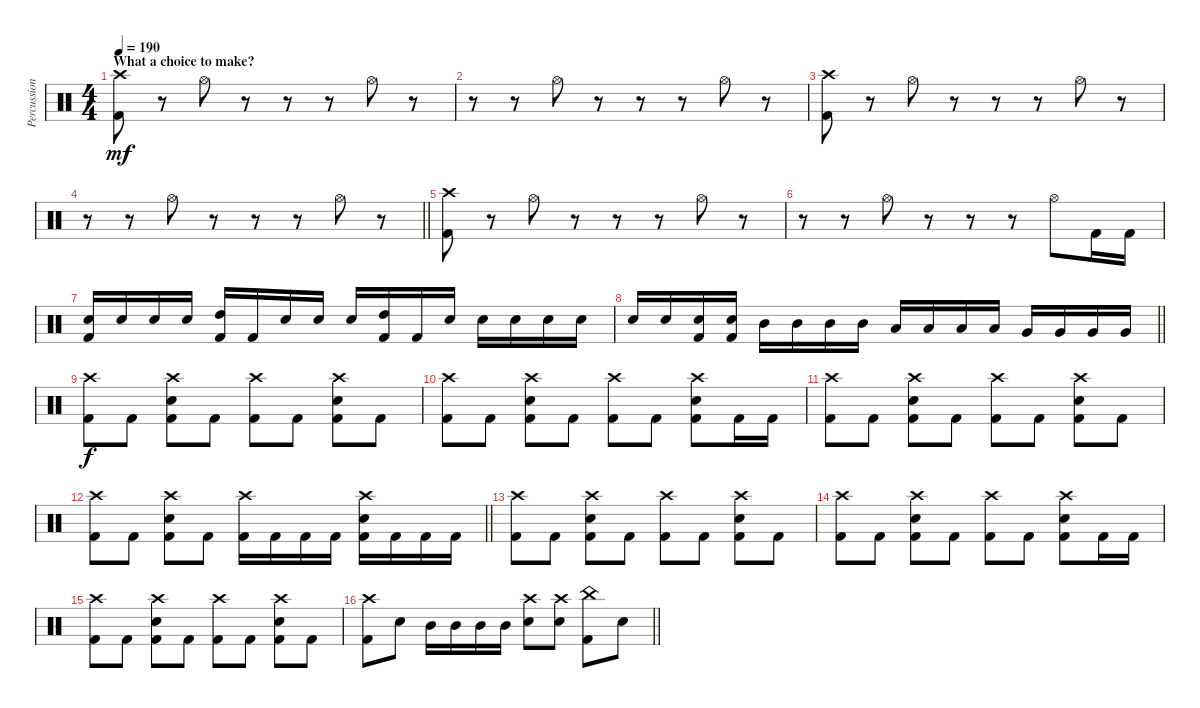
\track ("Percussion" "Percussion") {instrument percussion}
\staff {score}
\articulation defaults
\ts (4 4)
\section ("" "What a choice to make?")
\tempo 190
\clef neutral
\ks c
("Crash high (hit)" "Kick (hit) 2").8{dy mf} r.8 "Hi-Hat (open)".8 r.8 r.8 r.8 "Hi-Hat (open)".8 r.8 |
r.8 r.8 "Hi-Hat (open)".8 r.8 r.8 r.8 "Hi-Hat (open)".8 r.8 |
("Crash high (hit)" "Kick (hit) 2").8 r.8 "Hi-Hat (open)".8 r.8 r.8 r.8 "Hi-Hat (open)".8 r.8 |
\barLineRight lightlight
r.8 r.8 "Hi-Hat (open)".8 r.8 r.8 r.8 "Hi-Hat (open)".8 r.8 |
("Crash high (hit)" "Kick (hit) 2").8 r.8 "Hi-Hat (open)".8 r.8 r.8 r.8 "Hi-Hat (open)".8 r.8 |
r.8 r.8 "Hi-Hat (open)".8 r.8 r.8 r.8 "Hi-Hat (open)".8 "Kick (hit) 2".16 "Kick (hit) 2".16 |
("Snare (hit) 2" "Kick (hit) 2").16 "Snare (hit) 2".16 "Snare (hit) 2".16 "Snare (hit) 2".16 ("High Tom (hit)" "Kick (hit) 2").16 "Kick (hit) 2".16 "Snare (hit) 2".16 "Snare (hit) 2".16 "Snare (hit) 2".16 ("High Tom (hit)" "Kick (hit) 2").16 "Kick (hit) 2".16 "Snare (hit) 2".16 "Snare (hit) 2".16 "Snare (hit) 2".16 "Snare (hit) 2".16 "Snare (hit) 2".16 |
\barLineRight lightlight "Snare (hit) 2".16 "Snare (hit) 2".16
("Snare (hit) 2" "Kick (hit) 2").16 ("Snare (hit) 2" "Kick (hit) 2").16 "Mid Tom (hit)".16 "Mid Tom (hit)".16 "Mid Tom (hit)".16 "Mid Tom (hit)".16 "Low Tom (hit)".16 "Low Tom (hit)".16 "Low Tom (hit)".16 "Low Tom (hit)".16 "Very Low Tom (hit)".16 "Very Low Tom (hit)".16 "Very Low Tom (hit)".16 "Very Low Tom (hit)".16 |
("Crash high (hit)" "Kick (hit) 2").8{dy f} "Kick (hit) 2".8 ("Crash high (hit)" "Snare (hit) 2" "Kick (hit) 2").8 "Kick (hit) 2".8 ("Crash high (hit)" "Kick (hit) 2").8 "Kick (hit) 2".8 ("Crash high (hit)" "Snare (hit) 2" "Kick (hit) 2").8 "Kick (hit) 2".8 |
("Crash high (hit)" "Kick (hit) 2").8 "Kick (hit) 2".8 ("Crash high (hit)" "Snare (hit) 2" "Kick (hit) 2").8 "Kick (hit) 2".8 ("Crash high (hit)" "Kick (hit) 2").8 "Kick (hit) 2".8 ("Crash high (hit)" "Snare (hit) 2" "Kick (hit) 2").8 "Kick (hit) 2".16 "Kick (hit) 2".16 |
("Crash high (hit)" "Kick (hit) 2").8 "Kick (hit) 2".8 ("Crash high (hit)" "Snare (hit) 2" "Kick (hit) 2").8 "Kick (hit) 2".8 ("Crash high (hit)" "Kick (hit) 2").8 "Kick (hit) 2".8 ("Crash high (hit)" "Snare (hit) 2" "Kick (hit) 2").8 "Kick (hit) 2".8 |
\barLineRight lightlight
("Crash high (hit)" "Kick (hit) 2").8 "Kick (hit) 2".8 ("Crash high (hit)" "Snare (hit) 2" "Kick (hit) 2").8 "Kick (hit) 2".8 ("Crash high (hit)" "Kick (hit) 2").16 "Kick (hit) 2".16 "Kick (hit) 2".16 "Kick (hit) 2".16 ("Crash high (hit)" "Snare (hit) 2" "Kick (hit) 2").16 "Kick (hit) 2".16 "Kick (hit) 2".16 "Kick (hit) 2".16 |
("Crash high (hit)" "Kick (hit) 2").8 "Kick (hit) 2".8 ("Crash high (hit)" "Snare (hit) 2" "Kick (hit) 2").8 "Kick (hit) 2".8 ("Crash high (hit)" "Kick (hit) 2").8 "Kick (hit) 2".8 ("Crash high (hit)" "Snare (hit) 2" "Kick (hit) 2").8 "Kick (hit) 2".8 |
("Crash high (hit)" "Kick (hit) 2").8 "Kick (hit) 2".8 ("Crash high (hit)" "Snare (hit) 2" "Kick (hit) 2").8 "Kick (hit) 2".8 ("Crash high (hit)" "Kick (hit) 2").8 "Kick (hit) 2".8 ("Crash high (hit)" "Snare (hit) 2" "Kick (hit) 2").8 "Kick (hit) 2".16 "Kick (hit) 2".16 |
("Crash high (hit)" "Kick (hit) 2").8 "Kick (hit) 2".8 ("Crash high (hit)" "Snare (hit) 2" "Kick (hit) 2").8 "Kick (hit) 2".8 ("Crash high (hit)" "Kick (hit) 2").8 "Kick (hit) 2".8 ("Crash high (hit)" "Snare (hit) 2" "Kick (hit) 2").8 "Kick (hit) 2".8 |
\barLineRight lightlight
("Crash high (hit)" "Kick (hit) 2").8 "Snare (hit) 2".8 "Mid Tom (hit)".16 "Mid Tom (hit)".16 "Mid Tom (hit)".16 "Mid Tom (hit)".16 ("Crash high (hit)" "Snare (hit) 2").8 ("Crash high (hit)" "Snare (hit) 2").8 ("China (hit)" "Kick (hit) 2").8 "Snare (hit) 2".8
